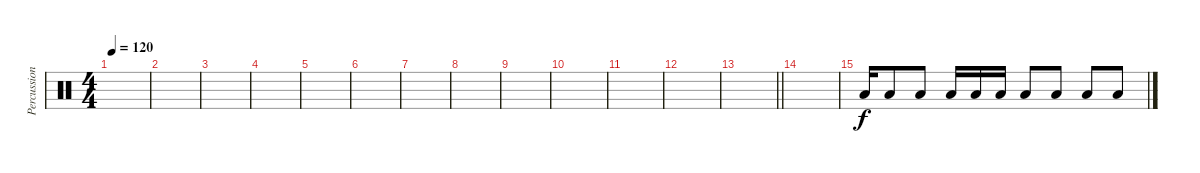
\track ("Percussion" "Percussion") {instrument percussion}
\staff {score}
\articulation defaults
\ts (4 4)
\tempo 120
\clef neutral
\ks c
|
|
|
|
|
|
|
|
|
|
|
|
\barLineRight lightlight
|
\section ("" "")
|
"Low Tom (hit)".16{dy f} "Low Tom (hit)".8 "Low Tom (hit)".8 "Low Tom (hit)".16 "Low Tom (hit)".16 "Low Tom (hit)".16 "Low Floor Tom (hit)".8 "Low Floor Tom (hit)".8 "Low Floor Tom (hit)".8 "Low Floor Tom (hit)".8
